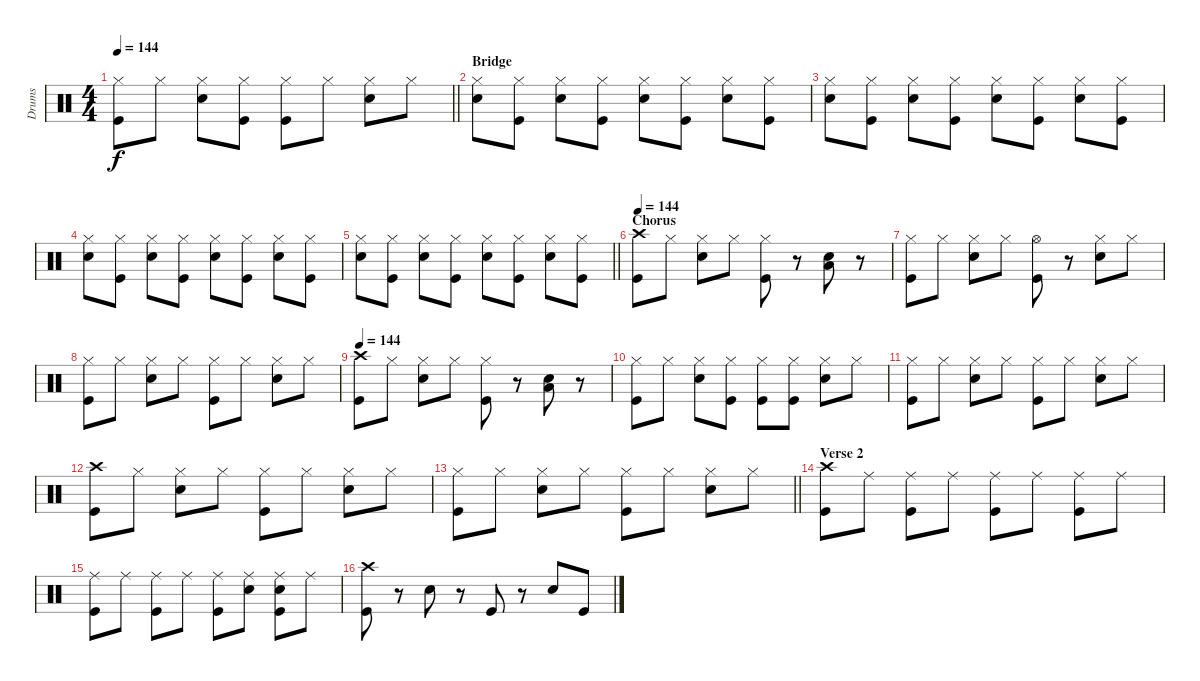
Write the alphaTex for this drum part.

\track ("Drums" "Drums") {instrument percussion}
\staff {score}
\articulation defaults
\ts (4 4)
\tempo 144
\clef neutral
\barLineRight lightlight
\ks c
("Hi-Hat (closed)" "Kick (hit)").8{dy f} "Hi-Hat (closed)".8 ("Hi-Hat (closed)" "Snare (hit) 2").8 ("Hi-Hat (closed)" "Kick (hit)").8 ("Hi-Hat (closed)" "Kick (hit)").8 "Hi-Hat (closed)".8 ("Snare (hit) 2" "Hi-Hat (closed)").8 "Hi-Hat (closed)".8 |
\section ("" "Bridge")
("Hi-Hat (closed)" "Snare (hit) 2").8 ("Kick (hit)" "Hi-Hat (closed)").8 ("Hi-Hat (closed)" "Snare (hit) 2").8 ("Hi-Hat (closed)" "Kick (hit)").8 ("Hi-Hat (closed)" "Snare (hit) 2").8 ("Kick (hit)" "Hi-Hat (closed)").8 ("Hi-Hat (closed)" "Snare (hit) 2").8 ("Hi-Hat (closed)" "Kick (hit)").8 |
("Hi-Hat (closed)" "Snare (hit) 2").8 ("Hi-Hat (closed)" "Kick (hit)").8 ("Hi-Hat (closed)" "Snare (hit) 2").8 ("Hi-Hat (closed)" "Kick (hit)").8 ("Hi-Hat (closed)" "Snare (hit) 2").8 ("Hi-Hat (closed)" "Kick (hit)").8 ("Hi-Hat (closed)" "Snare (hit) 2").8 ("Hi-Hat (closed)" "Kick (hit)").8 |
("Hi-Hat (closed)" "Snare (hit) 2").8 ("Hi-Hat (closed)" "Kick (hit)").8 ("Hi-Hat (closed)" "Snare (hit) 2").8 ("Hi-Hat (closed)" "Kick (hit)").8 ("Hi-Hat (closed)" "Snare (hit) 2").8 ("Hi-Hat (closed)" "Kick (hit)").8 ("Hi-Hat (closed)" "Snare (hit) 2").8 ("Hi-Hat (closed)" "Kick (hit)").8 |
\barLineRight lightlight
("Hi-Hat (closed)" "Snare (hit) 2").8 ("Hi-Hat (closed)" "Kick (hit)").8 ("Hi-Hat (closed)" "Snare (hit) 2").8 ("Hi-Hat (closed)" "Kick (hit)").8 ("Hi-Hat (closed)" "Snare (hit) 2").8 ("Hi-Hat (closed)" "Kick (hit)").8 ("Hi-Hat (closed)" "Snare (hit) 2").8 ("Hi-Hat (closed)" "Kick (hit)").8 |
\section ("" "Chorus")
\tempo 144
("Crash high (hit)" "Kick (hit)").8 "Hi-Hat (closed)".8 ("Hi-Hat (closed)" "Snare (hit) 2").8 "Hi-Hat (closed)".8 ("Hi-Hat (closed)" "Kick (hit)").8 r.8 ("Snare (hit) 2" "Low Floor Tom (hit)").8 r.8 |
("Hi-Hat (closed)" "Kick (hit)").8 "Hi-Hat (closed)".8 ("Hi-Hat (closed)" "Snare (hit) 2").8 "Hi-Hat (closed)".8 ("Hi-Hat (open)" "Kick (hit)").8 r.8 ("Snare (hit) 2" "Hi-Hat (closed)").8 "Hi-Hat (closed)".8 |
("Hi-Hat (closed)" "Kick (hit)").8 "Hi-Hat (closed)".8 ("Hi-Hat (closed)" "Snare (hit) 2").8 "Hi-Hat (closed)".8 ("Hi-Hat (closed)" "Kick (hit)").8 "Hi-Hat (closed)".8 ("Hi-Hat (closed)" "Snare (hit) 2").8 "Hi-Hat (closed)".8 |
\tempo 144
("Crash high (hit)" "Kick (hit)").8 "Hi-Hat (closed)".8 ("Hi-Hat (closed)" "Snare (hit) 2").8 "Hi-Hat (closed)".8 ("Hi-Hat (closed)" "Kick (hit)").8 r.8 ("Snare (hit) 2" "Low Floor Tom (hit)").8 r.8 |
("Hi-Hat (closed)" "Kick (hit)").8 "Hi-Hat (closed)".8 ("Hi-Hat (closed)" "Snare (hit) 2").8 ("Hi-Hat (closed)" "Kick (hit)").8 ("Hi-Hat (closed)" "Kick (hit)").8 ("Hi-Hat (closed)" "Kick (hit)").8 ("Hi-Hat (closed)" "Snare (hit) 2").8 "Hi-Hat (closed)".8 |
("Hi-Hat (closed)" "Kick (hit)").8 "Hi-Hat (closed)".8 ("Hi-Hat (closed)" "Snare (hit) 2").8 "Hi-Hat (closed)".8 ("Hi-Hat (closed)" "Kick (hit)").8 "Hi-Hat (closed)".8 ("Hi-Hat (closed)" "Snare (hit) 2").8 "Hi-Hat (closed)".8 |
("Crash high (hit)" "Kick (hit)").8 "Hi-Hat (closed)".8 ("Hi-Hat (closed)" "Snare (hit) 2").8 "Hi-Hat (closed)".8 ("Hi-Hat (closed)" "Kick (hit)").8 "Hi-Hat (closed)".8 ("Hi-Hat (closed)" "Snare (hit) 2").8 "Hi-Hat (closed)".8 |
\barLineRight lightlight
("Hi-Hat (closed)" "Kick (hit)").8 "Hi-Hat (closed)".8 ("Hi-Hat (closed)" "Snare (hit) 2").8 "Hi-Hat (closed)".8 ("Hi-Hat (closed)" "Kick (hit)").8 "Hi-Hat (closed)".8 ("Hi-Hat (closed)" "Snare (hit) 2").8 "Hi-Hat (closed)".8 |
\section ("" "Verse 2")
("Crash high (hit)" "Kick (hit)").8 "Ride (middle)".8 ("Ride (middle)" "Kick (hit)").8 "Ride (middle)".8 ("Ride (middle)" "Kick (hit)").8 "Ride (middle)".8 ("Ride (middle)" "Kick (hit)").8 "Ride (middle)".8 |
("Ride (middle)" "Kick (hit)").8 "Ride (middle)".8 ("Ride (middle)" "Kick (hit)").8 "Ride (middle)".8 ("Ride (middle)" "Kick (hit)").8 ("Ride (middle)" "Snare (hit) 2").8 ("Ride (middle)" "Snare (hit) 2" "Kick (hit)").8 "Ride (middle)".8 |
("Crash high (hit)" "Kick (hit)").8 r.8 "Snare (hit) 2".8 r.8 "Kick (hit)".8 r.8 "Snare (hit) 2".8 "Kick (hit)".8
